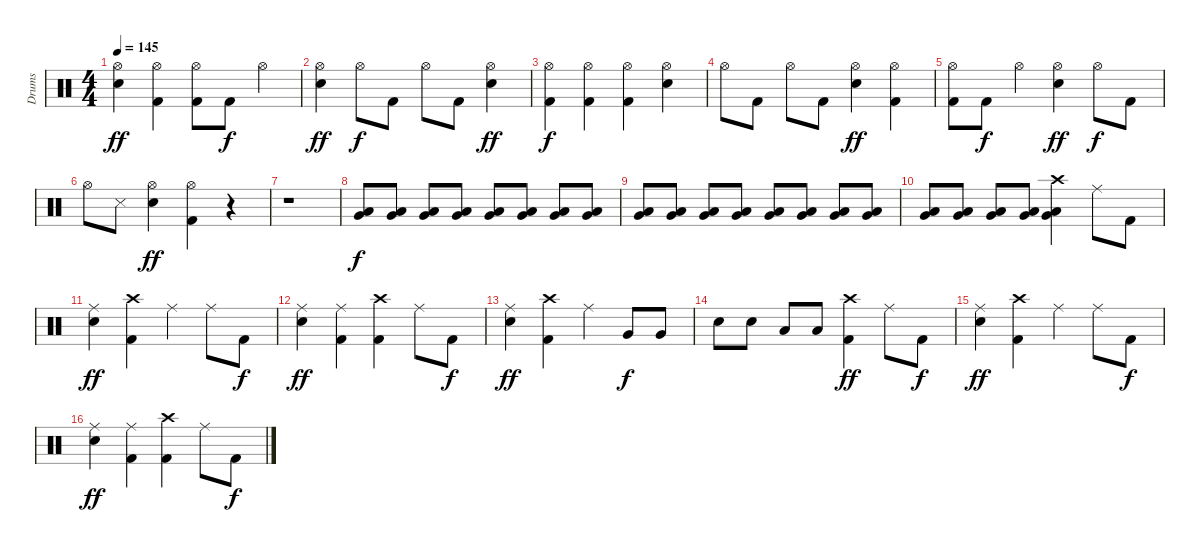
\track ("Drums" "Drums") {instrument percussion}
\staff {score}
\articulation defaults
\ts (4 4)
\tempo 145
\clef neutral
\ks c
("Hi-Hat (open)" "Electric Snare (hit)").4{dy ff} ("Hi-Hat (open)" "Kick (hit) 2").4 ("Hi-Hat (open)" "Kick (hit) 2").8 "Kick (hit) 2".8{dy f} "Hi-Hat (open)".4 |
("Hi-Hat (open)" "Electric Snare (hit)").4{dy ff} "Hi-Hat (open)".8{dy f} "Kick (hit) 2".8 "Hi-Hat (open)".8 "Kick (hit) 2".8 ("Hi-Hat (open)" "Electric Snare (hit)").4{dy ff} |
("Hi-Hat (open)" "Kick (hit) 2").4{dy f} ("Hi-Hat (open)" "Kick (hit) 2").4 ("Hi-Hat (open)" "Kick (hit) 2").4 ("Hi-Hat (open)" "Electric Snare (hit)").4 |
"Hi-Hat (open)".8 "Kick (hit) 2".8 "Hi-Hat (open)".8 "Kick (hit) 2".8 ("Hi-Hat (open)" "Electric Snare (hit)").4{dy ff} ("Hi-Hat (open)" "Kick (hit) 2").4 |
("Hi-Hat (open)" "Kick (hit) 2").8 "Kick (hit) 2".8{dy f} "Hi-Hat (open)".4 ("Hi-Hat (open)" "Electric Snare (hit)").4{dy ff} "Hi-Hat (open)".8{dy f} "Kick (hit) 2".8 |
"Hi-Hat (open)".8 "Snare (side stick) 3".8 ("Hi-Hat (open)" "Electric Snare (hit)").4{dy ff} ("Hi-Hat (open)" "Kick (hit) 2").4 r.4 |
r.1 |
("Low Tom (hit)" "Very Low Tom (hit)").8{dy f volume 4} ("Low Tom (hit)" "Very Low Tom (hit)").8{volume 5} ("Low Tom (hit)" "Very Low Tom (hit)").8{volume 6} ("Low Tom (hit)" "Very Low Tom (hit)").8{volume 7} ("Low Tom (hit)" "Very Low Tom (hit)").8{volume 8} ("Low Tom (hit)" "Very Low Tom (hit)").8{volume 9} ("Low Tom (hit)" "Very Low Tom (hit)").8{volume 10} ("Low Tom (hit)" "Very Low Tom (hit)").8{volume 11} |
("Low Tom (hit)" "Very Low Tom (hit)").8{volume 12} ("Low Tom (hit)" "Very Low Tom (hit)").8{volume 13} ("Low Tom (hit)" "Very Low Tom (hit)").8{volume 13} ("Low Tom (hit)" "Very Low Tom (hit)").8{volume 14} ("Low Tom (hit)" "Very Low Tom (hit)").8 ("Low Tom (hit)" "Very Low Tom (hit)").8 ("Low Tom (hit)" "Very Low Tom (hit)").8 ("Low Tom (hit)" "Very Low Tom (hit)").8 |
("Low Tom (hit)" "Very Low Tom (hit)").8{volume 12} ("Low Tom (hit)" "Very Low Tom (hit)").8{volume 13} ("Low Tom (hit)" "Very Low Tom (hit)").8{volume 13} ("Low Tom (hit)" "Very Low Tom (hit)").8{volume 14} ("Crash high (hit)" "Low Tom (hit)" "Very Low Tom (hit)").4 "Ride (middle)".8 "Kick (hit) 2".8 |
("Ride (middle)" "Electric Snare (hit)").4{dy ff} ("Crash high (hit)" "Kick (hit) 2").4 "Ride (middle)".4 "Ride (middle)".8 "Kick (hit) 2".8{dy f} |
("Ride (middle)" "Electric Snare (hit)").4{dy ff} ("Ride (middle)" "Kick (hit) 2").4 ("Crash high (hit)" "Kick (hit) 2").4 "Ride (middle)".8 "Kick (hit) 2".8{dy f} |
("Ride (middle)" "Electric Snare (hit)").4{dy ff} ("Crash high (hit)" "Kick (hit) 2").4 "Ride (middle)".4 "Very Low Tom (hit)".8{dy f} "Very Low Tom (hit)".8 |
"Electric Snare (hit)".8 "Electric Snare (hit)".8 "Low Tom (hit)".8 "Low Tom (hit)".8 ("Crash high (hit)" "Kick (hit) 2").4{dy ff} "Ride (middle)".8 "Kick (hit) 2".8{dy f} |
("Ride (middle)" "Electric Snare (hit)").4{dy ff} ("Crash high (hit)" "Kick (hit) 2").4 "Ride (middle)".4 "Ride (middle)".8 "Kick (hit) 2".8{dy f} |
("Ride (middle)" "Electric Snare (hit)").4{dy ff} ("Ride (middle)" "Kick (hit) 2").4 ("Crash high (hit)" "Kick (hit) 2").4 "Ride (middle)".8 "Kick (hit) 2".8{dy f}
